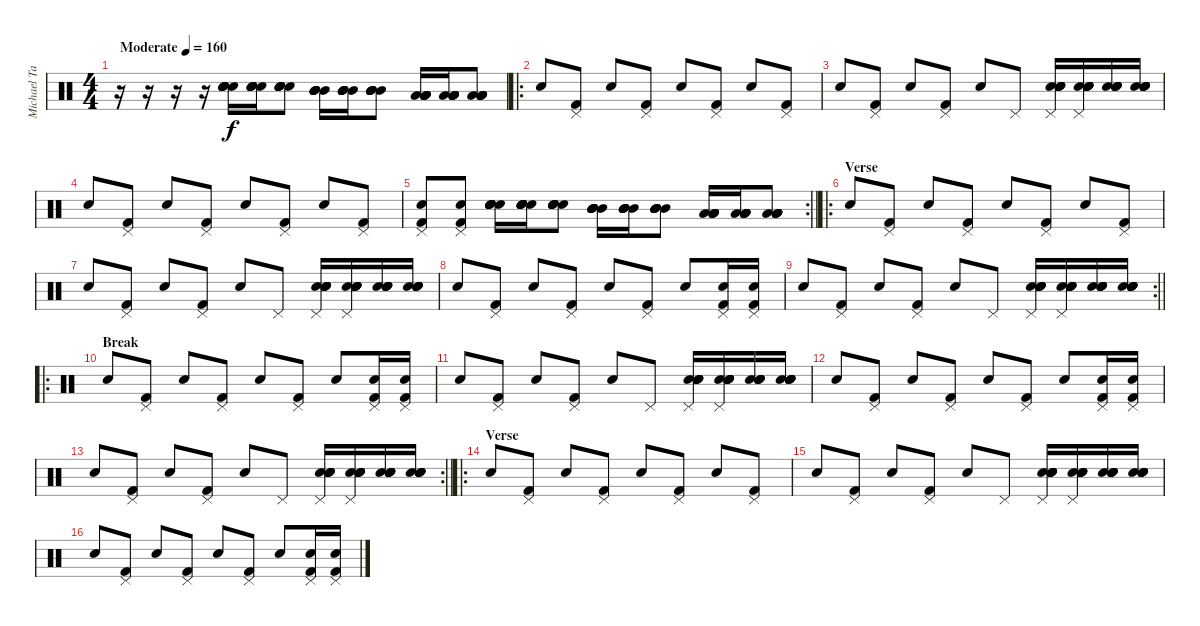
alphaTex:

\track ("Michael Tapper" "Michael Ta") {instrument percussion}
\staff {score}
\articulation defaults
\ts (4 4)
\tempo (160 "Moderate")
\clef neutral
\ks c
r.16{dy f} r.16 r.16 r.16 ("Electric Snare (hit)" "Electric Snare (hit)" "Electric Snare (hit)" "Electric Snare (hit)" "Electric Snare (hit)" "Electric Snare (hit)").16 ("Electric Snare (hit)" "Electric Snare (hit)" "Electric Snare (hit)" "Electric Snare (hit)" "Electric Snare (hit)" "Electric Snare (hit)").16 ("Electric Snare (hit)" "Electric Snare (hit)" "Electric Snare (hit)" "Electric Snare (hit)" "Electric Snare (hit)" "Electric Snare (hit)").8 ("Mid Tom (hit)" "Mid Tom (hit)" "Mid Tom (hit)" "Mid Tom (hit)" "Mid Tom (hit)" "Mid Tom (hit)").16 ("Mid Tom (hit)" "Mid Tom (hit)" "Mid Tom (hit)" "Mid Tom (hit)" "Mid Tom (hit)" "Mid Tom (hit)").16 ("Mid Tom (hit)" "Mid Tom (hit)" "Mid Tom (hit)" "Mid Tom (hit)" "Mid Tom (hit)" "Mid Tom (hit)").8 ("Low Tom (hit)" "Low Tom (hit)" "Low Tom (hit)" "Low Tom (hit)" "Low Tom (hit)" "Low Tom (hit)").16 ("Low Tom (hit)" "Low Tom (hit)" "Low Tom (hit)" "Low Tom (hit)" "Low Tom (hit)" "Low Tom (hit)").16 ("Low Tom (hit)" "Low Tom (hit)" "Low Tom (hit)" "Low Tom (hit)" "Low Tom (hit)" "Low Tom (hit)").8 |
\ro "Electric Snare (hit)".8
("Pedal Hi-Hat (hit)" "Kick (hit) 2").8 "Electric Snare (hit)".8 ("Pedal Hi-Hat (hit)" "Kick (hit) 2").8 "Electric Snare (hit)".8 ("Pedal Hi-Hat (hit)" "Kick (hit) 2").8 "Electric Snare (hit)".8 ("Pedal Hi-Hat (hit)" "Kick (hit) 2").8 |
"Electric Snare (hit)".8 ("Pedal Hi-Hat (hit)" "Kick (hit) 2").8 "Electric Snare (hit)".8 ("Pedal Hi-Hat (hit)" "Kick (hit) 2").8 "Electric Snare (hit)".8 "Pedal Hi-Hat (hit)".8 ("Pedal Hi-Hat (hit)" "Electric Snare (hit)" "Electric Snare (hit)" "Electric Snare (hit)" "Electric Snare (hit)" "Electric Snare (hit)").16 ("Pedal Hi-Hat (hit)" "Electric Snare (hit)" "Electric Snare (hit)" "Electric Snare (hit)" "Electric Snare (hit)" "Electric Snare (hit)").16 ("Electric Snare (hit)" "Electric Snare (hit)" "Electric Snare (hit)" "Electric Snare (hit)" "Electric Snare (hit)").16 ("Electric Snare (hit)" "Electric Snare (hit)" "Electric Snare (hit)" "Electric Snare (hit)" "Electric Snare (hit)").16 |
"Electric Snare (hit)".8 ("Pedal Hi-Hat (hit)" "Kick (hit) 2").8 "Electric Snare (hit)".8 ("Pedal Hi-Hat (hit)" "Kick (hit) 2").8 "Electric Snare (hit)".8 ("Pedal Hi-Hat (hit)" "Kick (hit) 2").8 "Electric Snare (hit)".8 ("Pedal Hi-Hat (hit)" "Kick (hit) 2").8 |
\rc 2
\barLineRight lightlight
("Pedal Hi-Hat (hit)" "Electric Snare (hit)" "Kick (hit) 2").8 ("Pedal Hi-Hat (hit)" "Electric Snare (hit)" "Kick (hit) 2").8 ("Electric Snare (hit)" "Electric Snare (hit)" "Electric Snare (hit)" "Electric Snare (hit)" "Electric Snare (hit)" "Electric Snare (hit)").16 ("Electric Snare (hit)" "Electric Snare (hit)" "Electric Snare (hit)" "Electric Snare (hit)" "Electric Snare (hit)" "Electric Snare (hit)").16 ("Electric Snare (hit)" "Electric Snare (hit)" "Electric Snare (hit)" "Electric Snare (hit)" "Electric Snare (hit)" "Electric Snare (hit)").8 ("Mid Tom (hit)" "Mid Tom (hit)" "Mid Tom (hit)" "Mid Tom (hit)" "Mid Tom (hit)" "Mid Tom (hit)").16 ("Mid Tom (hit)" "Mid Tom (hit)" "Mid Tom (hit)" "Mid Tom (hit)" "Mid Tom (hit)" "Mid Tom (hit)").16 ("Mid Tom (hit)" "Mid Tom (hit)" "Mid Tom (hit)" "Mid Tom (hit)" "Mid Tom (hit)" "Mid Tom (hit)").8 ("Low Tom (hit)" "Low Tom (hit)" "Low Tom (hit)" "Low Tom (hit)" "Low Tom (hit)" "Low Tom (hit)").16 ("Low Tom (hit)" "Low Tom (hit)" "Low Tom (hit)" "Low Tom (hit)" "Low Tom (hit)" "Low Tom (hit)").16 ("Low Tom (hit)" "Low Tom (hit)" "Low Tom (hit)" "Low Tom (hit)" "Low Tom (hit)" "Low Tom (hit)").8 |
\ro
\section ("" "Verse")
"Electric Snare (hit)".8 ("Pedal Hi-Hat (hit)" "Kick (hit) 2").8 "Electric Snare (hit)".8 ("Pedal Hi-Hat (hit)" "Kick (hit) 2").8 "Electric Snare (hit)".8 ("Pedal Hi-Hat (hit)" "Kick (hit) 2").8 "Electric Snare (hit)".8 ("Pedal Hi-Hat (hit)" "Kick (hit) 2").8 |
"Electric Snare (hit)".8 ("Pedal Hi-Hat (hit)" "Kick (hit) 2").8 "Electric Snare (hit)".8 ("Pedal Hi-Hat (hit)" "Kick (hit) 2").8 "Electric Snare (hit)".8 "Pedal Hi-Hat (hit)".8 ("Pedal Hi-Hat (hit)" "Electric Snare (hit)" "Electric Snare (hit)" "Electric Snare (hit)" "Electric Snare (hit)" "Electric Snare (hit)").16 ("Pedal Hi-Hat (hit)" "Electric Snare (hit)" "Electric Snare (hit)" "Electric Snare (hit)" "Electric Snare (hit)" "Electric Snare (hit)").16 ("Electric Snare (hit)" "Electric Snare (hit)" "Electric Snare (hit)" "Electric Snare (hit)" "Electric Snare (hit)").16 ("Electric Snare (hit)" "Electric Snare (hit)" "Electric Snare (hit)" "Electric Snare (hit)" "Electric Snare (hit)").16 |
"Electric Snare (hit)".8 ("Pedal Hi-Hat (hit)" "Kick (hit) 2").8 "Electric Snare (hit)".8 ("Pedal Hi-Hat (hit)" "Kick (hit) 2").8 "Electric Snare (hit)".8 ("Pedal Hi-Hat (hit)" "Kick (hit) 2").8 "Electric Snare (hit)".8 ("Pedal Hi-Hat (hit)" "Electric Snare (hit)" "Kick (hit) 2").16 ("Pedal Hi-Hat (hit)" "Electric Snare (hit)" "Kick (hit) 2").16 |
\rc 2
\barLineRight lightlight "Electric Snare (hit)".8
("Pedal Hi-Hat (hit)" "Kick (hit) 2").8 "Electric Snare (hit)".8 ("Pedal Hi-Hat (hit)" "Kick (hit) 2").8 "Electric Snare (hit)".8 "Pedal Hi-Hat (hit)".8 ("Pedal Hi-Hat (hit)" "Electric Snare (hit)" "Electric Snare (hit)" "Electric Snare (hit)" "Electric Snare (hit)" "Electric Snare (hit)").16 ("Pedal Hi-Hat (hit)" "Electric Snare (hit)" "Electric Snare (hit)" "Electric Snare (hit)" "Electric Snare (hit)" "Electric Snare (hit)").16 ("Electric Snare (hit)" "Electric Snare (hit)" "Electric Snare (hit)" "Electric Snare (hit)" "Electric Snare (hit)").16 ("Electric Snare (hit)" "Electric Snare (hit)" "Electric Snare (hit)" "Electric Snare (hit)" "Electric Snare (hit)").16 |
\ro
\section ("" "Break")
"Electric Snare (hit)".8 ("Pedal Hi-Hat (hit)" "Kick (hit) 2").8 "Electric Snare (hit)".8 ("Pedal Hi-Hat (hit)" "Kick (hit) 2").8 "Electric Snare (hit)".8 ("Pedal Hi-Hat (hit)" "Kick (hit) 2").8 "Electric Snare (hit)".8 ("Pedal Hi-Hat (hit)" "Electric Snare (hit)" "Kick (hit) 2").16 ("Pedal Hi-Hat (hit)" "Electric Snare (hit)" "Kick (hit) 2").16 |
"Electric Snare (hit)".8 ("Pedal Hi-Hat (hit)" "Kick (hit) 2").8 "Electric Snare (hit)".8 ("Pedal Hi-Hat (hit)" "Kick (hit) 2").8 "Electric Snare (hit)".8 "Pedal Hi-Hat (hit)".8 ("Pedal Hi-Hat (hit)" "Electric Snare (hit)" "Electric Snare (hit)" "Electric Snare (hit)" "Electric Snare (hit)" "Electric Snare (hit)").16 ("Pedal Hi-Hat (hit)" "Electric Snare (hit)" "Electric Snare (hit)" "Electric Snare (hit)" "Electric Snare (hit)" "Electric Snare (hit)").16 ("Electric Snare (hit)" "Electric Snare (hit)" "Electric Snare (hit)" "Electric Snare (hit)" "Electric Snare (hit)").16 ("Electric Snare (hit)" "Electric Snare (hit)" "Electric Snare (hit)" "Electric Snare (hit)" "Electric Snare (hit)").16 |
"Electric Snare (hit)".8 ("Pedal Hi-Hat (hit)" "Kick (hit) 2").8 "Electric Snare (hit)".8 ("Pedal Hi-Hat (hit)" "Kick (hit) 2").8 "Electric Snare (hit)".8 ("Pedal Hi-Hat (hit)" "Kick (hit) 2").8 "Electric Snare (hit)".8 ("Pedal Hi-Hat (hit)" "Electric Snare (hit)" "Kick (hit) 2").16 ("Pedal Hi-Hat (hit)" "Electric Snare (hit)" "Kick (hit) 2").16 |
\rc 2
\barLineRight lightlight "Electric Snare (hit)".8
("Pedal Hi-Hat (hit)" "Kick (hit) 2").8 "Electric Snare (hit)".8 ("Pedal Hi-Hat (hit)" "Kick (hit) 2").8 "Electric Snare (hit)".8 "Pedal Hi-Hat (hit)".8 ("Pedal Hi-Hat (hit)" "Electric Snare (hit)" "Electric Snare (hit)" "Electric Snare (hit)" "Electric Snare (hit)" "Electric Snare (hit)").16 ("Pedal Hi-Hat (hit)" "Electric Snare (hit)" "Electric Snare (hit)" "Electric Snare (hit)" "Electric Snare (hit)" "Electric Snare (hit)").16 ("Electric Snare (hit)" "Electric Snare (hit)" "Electric Snare (hit)" "Electric Snare (hit)" "Electric Snare (hit)").16 ("Electric Snare (hit)" "Electric Snare (hit)" "Electric Snare (hit)" "Electric Snare (hit)" "Electric Snare (hit)").16 |
\ro
\section ("" "Verse")
"Electric Snare (hit)".8 ("Pedal Hi-Hat (hit)" "Kick (hit) 2").8 "Electric Snare (hit)".8 ("Pedal Hi-Hat (hit)" "Kick (hit) 2").8 "Electric Snare (hit)".8 ("Pedal Hi-Hat (hit)" "Kick (hit) 2").8 "Electric Snare (hit)".8 ("Pedal Hi-Hat (hit)" "Kick (hit) 2").8 |
"Electric Snare (hit)".8 ("Pedal Hi-Hat (hit)" "Kick (hit) 2").8 "Electric Snare (hit)".8 ("Pedal Hi-Hat (hit)" "Kick (hit) 2").8 "Electric Snare (hit)".8 "Pedal Hi-Hat (hit)".8 ("Pedal Hi-Hat (hit)" "Electric Snare (hit)" "Electric Snare (hit)" "Electric Snare (hit)" "Electric Snare (hit)" "Electric Snare (hit)").16 ("Pedal Hi-Hat (hit)" "Electric Snare (hit)" "Electric Snare (hit)" "Electric Snare (hit)" "Electric Snare (hit)" "Electric Snare (hit)").16 ("Electric Snare (hit)" "Electric Snare (hit)" "Electric Snare (hit)" "Electric Snare (hit)" "Electric Snare (hit)").16 ("Electric Snare (hit)" "Electric Snare (hit)" "Electric Snare (hit)" "Electric Snare (hit)" "Electric Snare (hit)").16 |
"Electric Snare (hit)".8 ("Pedal Hi-Hat (hit)" "Kick (hit) 2").8 "Electric Snare (hit)".8 ("Pedal Hi-Hat (hit)" "Kick (hit) 2").8 "Electric Snare (hit)".8 ("Pedal Hi-Hat (hit)" "Kick (hit) 2").8 "Electric Snare (hit)".8 ("Pedal Hi-Hat (hit)" "Electric Snare (hit)" "Kick (hit) 2").16 ("Pedal Hi-Hat (hit)" "Electric Snare (hit)" "Kick (hit) 2").16
